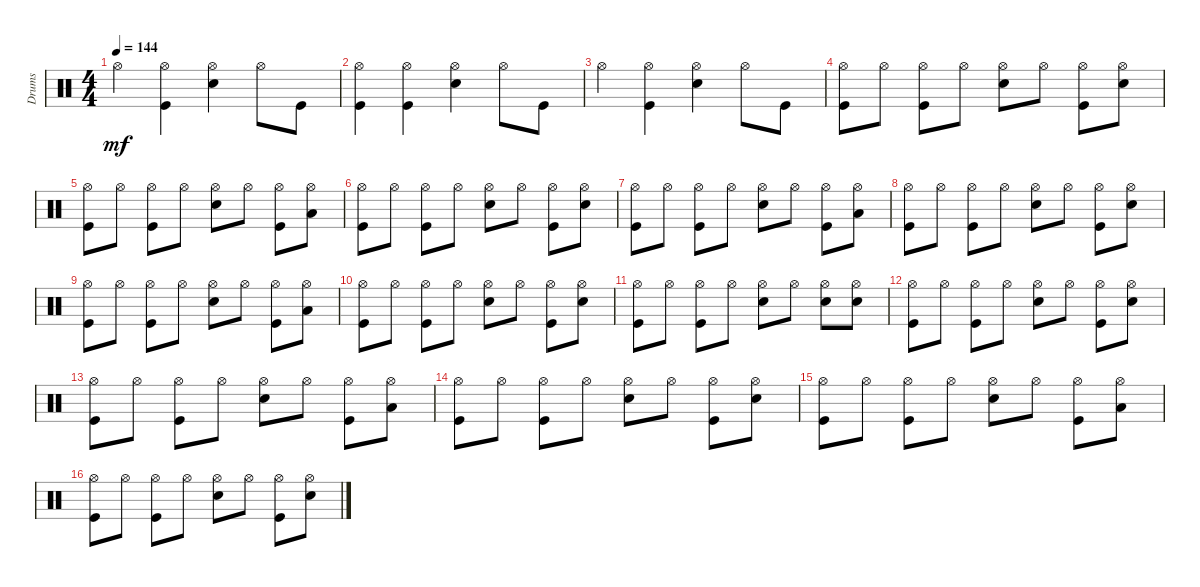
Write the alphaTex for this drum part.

\track ("Drums               " "Drums     ") {instrument percussion}
\staff {score}
\articulation defaults
\ts (4 4)
\tempo 144
\clef neutral
\ks c "Hi-Hat (open)".4{dy mf}
("Hi-Hat (open)" "Kick (hit)").4 ("Snare (hit) 2" "Hi-Hat (open)").4 "Hi-Hat (open)".8 "Kick (hit)".8 |
("Kick (hit)" "Hi-Hat (open)").4 ("Kick (hit)" "Hi-Hat (open)").4 ("Snare (hit) 2" "Hi-Hat (open)").4 "Hi-Hat (open)".8 "Kick (hit)".8 |
"Hi-Hat (open)".4 ("Hi-Hat (open)" "Kick (hit)").4 ("Snare (hit) 2" "Hi-Hat (open)").4 "Hi-Hat (open)".8 "Kick (hit)".8 |
("Kick (hit)" "Hi-Hat (open)").8 "Hi-Hat (open)".8 ("Kick (hit)" "Hi-Hat (open)").8 "Hi-Hat (open)".8 ("Snare (hit) 2" "Hi-Hat (open)").8 "Hi-Hat (open)".8 ("Kick (hit)" "Hi-Hat (open)").8 ("Snare (hit) 2" "Hi-Hat (open)").8 |
("Hi-Hat (open)" "Kick (hit)").8 "Hi-Hat (open)".8 ("Kick (hit)" "Hi-Hat (open)").8 "Hi-Hat (open)".8 ("Snare (hit) 2" "Hi-Hat (open)").8 "Hi-Hat (open)".8 ("Kick (hit)" "Hi-Hat (open)").8 ("Low Tom (hit)" "Hi-Hat (open)").8 |
("Kick (hit)" "Hi-Hat (open)").8 "Hi-Hat (open)".8 ("Kick (hit)" "Hi-Hat (open)").8 "Hi-Hat (open)".8 ("Snare (hit) 2" "Hi-Hat (open)").8 "Hi-Hat (open)".8 ("Kick (hit)" "Hi-Hat (open)").8 ("Snare (hit) 2" "Hi-Hat (open)").8 |
("Kick (hit)" "Hi-Hat (open)").8 "Hi-Hat (open)".8 ("Kick (hit)" "Hi-Hat (open)").8 "Hi-Hat (open)".8 ("Snare (hit) 2" "Hi-Hat (open)").8 "Hi-Hat (open)".8 ("Kick (hit)" "Hi-Hat (open)").8 ("Low Tom (hit)" "Hi-Hat (open)").8 |
("Kick (hit)" "Hi-Hat (open)").8 "Hi-Hat (open)".8 ("Kick (hit)" "Hi-Hat (open)").8 "Hi-Hat (open)".8 ("Snare (hit) 2" "Hi-Hat (open)").8 "Hi-Hat (open)".8 ("Hi-Hat (open)" "Kick (hit)").8 ("Snare (hit) 2" "Hi-Hat (open)").8 |
("Kick (hit)" "Hi-Hat (open)").8 "Hi-Hat (open)".8 ("Kick (hit)" "Hi-Hat (open)").8 "Hi-Hat (open)".8 ("Snare (hit) 2" "Hi-Hat (open)").8 "Hi-Hat (open)".8 ("Kick (hit)" "Hi-Hat (open)").8 ("Low Tom (hit)" "Hi-Hat (open)").8 |
("Kick (hit)" "Hi-Hat (open)").8 "Hi-Hat (open)".8 ("Kick (hit)" "Hi-Hat (open)").8 "Hi-Hat (open)".8 ("Snare (hit) 2" "Hi-Hat (open)").8 "Hi-Hat (open)".8 ("Hi-Hat (open)" "Kick (hit)").8 ("Snare (hit) 2" "Hi-Hat (open)").8 |
("Kick (hit)" "Hi-Hat (open)").8 "Hi-Hat (open)".8 ("Kick (hit)" "Hi-Hat (open)").8 "Hi-Hat (open)".8 ("Snare (hit) 2" "Hi-Hat (open)").8 "Hi-Hat (open)".8 ("Hi-Hat (open)" "Snare (hit) 2").8 ("Snare (hit) 2" "Hi-Hat (open)").8 |
("Kick (hit)" "Hi-Hat (open)").8 "Hi-Hat (open)".8 ("Kick (hit)" "Hi-Hat (open)").8 "Hi-Hat (open)".8 ("Snare (hit) 2" "Hi-Hat (open)").8 "Hi-Hat (open)".8 ("Kick (hit)" "Hi-Hat (open)").8 ("Snare (hit) 2" "Hi-Hat (open)").8 |
("Hi-Hat (open)" "Kick (hit)").8 "Hi-Hat (open)".8 ("Kick (hit)" "Hi-Hat (open)").8 "Hi-Hat (open)".8 ("Snare (hit) 2" "Hi-Hat (open)").8 "Hi-Hat (open)".8 ("Kick (hit)" "Hi-Hat (open)").8 ("Low Tom (hit)" "Hi-Hat (open)").8 |
("Kick (hit)" "Hi-Hat (open)").8 "Hi-Hat (open)".8 ("Kick (hit)" "Hi-Hat (open)").8 "Hi-Hat (open)".8 ("Snare (hit) 2" "Hi-Hat (open)").8 "Hi-Hat (open)".8 ("Kick (hit)" "Hi-Hat (open)").8 ("Snare (hit) 2" "Hi-Hat (open)").8 |
("Kick (hit)" "Hi-Hat (open)").8 "Hi-Hat (open)".8 ("Kick (hit)" "Hi-Hat (open)").8 "Hi-Hat (open)".8 ("Snare (hit) 2" "Hi-Hat (open)").8 "Hi-Hat (open)".8 ("Kick (hit)" "Hi-Hat (open)").8 ("Low Tom (hit)" "Hi-Hat (open)").8 |
("Kick (hit)" "Hi-Hat (open)").8 "Hi-Hat (open)".8 ("Kick (hit)" "Hi-Hat (open)").8 "Hi-Hat (open)".8 ("Snare (hit) 2" "Hi-Hat (open)").8 "Hi-Hat (open)".8 ("Hi-Hat (open)" "Kick (hit)").8 ("Snare (hit) 2" "Hi-Hat (open)").8
